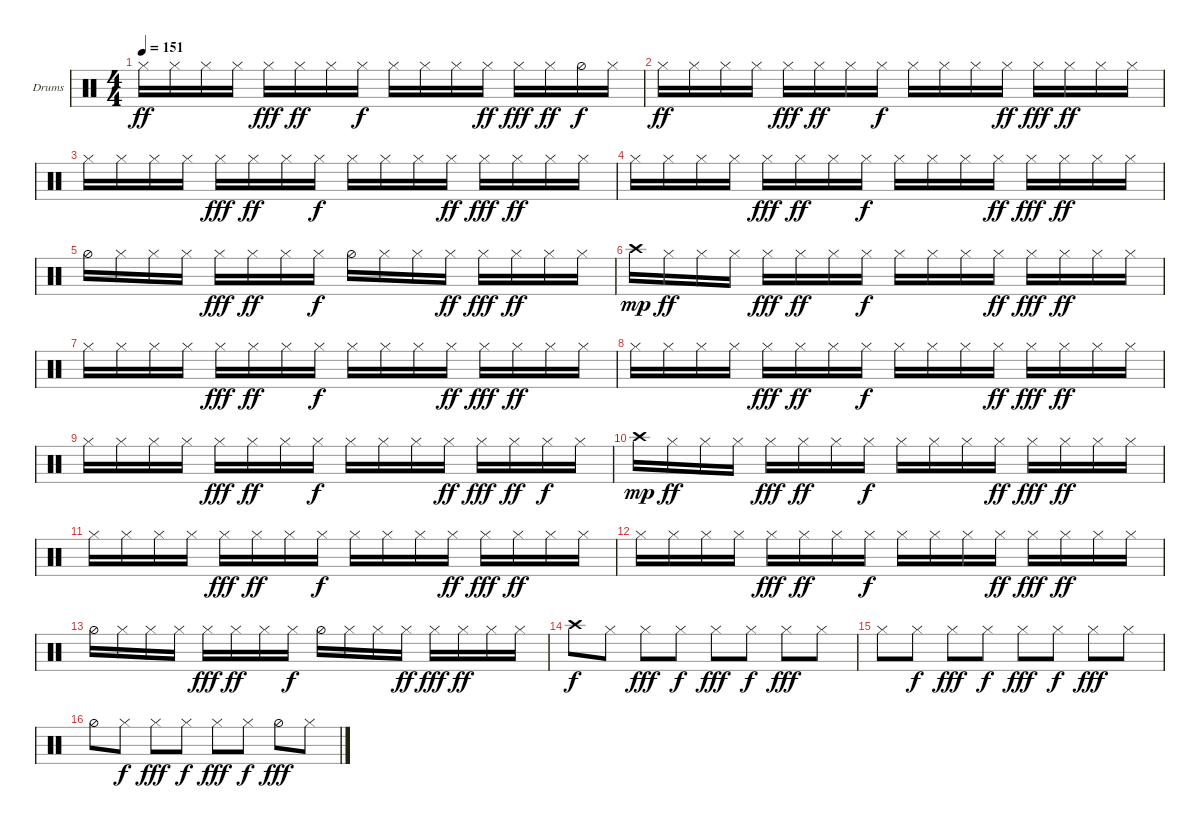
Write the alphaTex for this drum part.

\defaultSystemsLayout 4
\bracketExtendMode groupsimilarinstruments
\firstSystemTrackNameOrientation horizontal
\otherSystemsTrackNameOrientation horizontal
\track ("Helders" "Drums") {instrument percussion}
\staff {score}
\articulation defaults
\ts (4 4)
\tempo 151
\clef neutral
\ks c "Hi-Hat (closed)".16{dy ff} "Hi-Hat (closed)".16 "Hi-Hat (closed)".16 "Hi-Hat (closed)".16 "Hi-Hat (closed)".16{dy fff} "Hi-Hat (closed)".16{dy ff} "Hi-Hat (closed)".16 "Hi-Hat (closed)".16{dy f} "Hi-Hat (closed)".16 "Hi-Hat (closed)".16 "Hi-Hat (closed)".16 "Hi-Hat (closed)".16{dy ff} "Hi-Hat (closed)".16{dy fff} "Hi-Hat (closed)".16{dy ff} "Hi-Hat (half)".16{dy f} "Hi-Hat (closed)".16
|
"Hi-Hat (closed)".16{dy ff} "Hi-Hat (closed)".16 "Hi-Hat (closed)".16 "Hi-Hat (closed)".16 "Hi-Hat (closed)".16{dy fff} "Hi-Hat (closed)".16{dy ff} "Hi-Hat (closed)".16 "Hi-Hat (closed)".16{dy f} "Hi-Hat (closed)".16 "Hi-Hat (closed)".16 "Hi-Hat (closed)".16 "Hi-Hat (closed)".16{dy ff} "Hi-Hat (closed)".16{dy fff} "Hi-Hat (closed)".16{dy ff} "Hi-Hat (closed)".16 "Hi-Hat (closed)".16 |
"Hi-Hat (closed)".16 "Hi-Hat (closed)".16 "Hi-Hat (closed)".16 "Hi-Hat (closed)".16 "Hi-Hat (closed)".16{dy fff} "Hi-Hat (closed)".16{dy ff} "Hi-Hat (closed)".16 "Hi-Hat (closed)".16{dy f} "Hi-Hat (closed)".16 "Hi-Hat (closed)".16 "Hi-Hat (closed)".16 "Hi-Hat (closed)".16{dy ff} "Hi-Hat (closed)".16{dy fff} "Hi-Hat (closed)".16{dy ff} "Hi-Hat (closed)".16 "Hi-Hat (closed)".16 |
"Hi-Hat (closed)".16 "Hi-Hat (closed)".16 "Hi-Hat (closed)".16 "Hi-Hat (closed)".16 "Hi-Hat (closed)".16{dy fff} "Hi-Hat (closed)".16{dy ff} "Hi-Hat (closed)".16 "Hi-Hat (closed)".16{dy f} "Hi-Hat (closed)".16 "Hi-Hat (closed)".16 "Hi-Hat (closed)".16 "Hi-Hat (closed)".16{dy ff} "Hi-Hat (closed)".16{dy fff} "Hi-Hat (closed)".16{dy ff} "Hi-Hat (closed)".16 "Hi-Hat (closed)".16 |
"Hi-Hat (half)".16 "Hi-Hat (closed)".16 "Hi-Hat (closed)".16 "Hi-Hat (closed)".16 "Hi-Hat (closed)".16{dy fff} "Hi-Hat (closed)".16{dy ff} "Hi-Hat (closed)".16 "Hi-Hat (closed)".16{dy f} "Hi-Hat (half)".16 "Hi-Hat (closed)".16 "Hi-Hat (closed)".16 "Hi-Hat (closed)".16{dy ff} "Hi-Hat (closed)".16{dy fff} "Hi-Hat (closed)".16{dy ff} "Hi-Hat (closed)".16 "Hi-Hat (closed)".16 |
"Crash high (hit)".16{dy mp} "Hi-Hat (closed)".16{dy ff} "Hi-Hat (closed)".16 "Hi-Hat (closed)".16 "Hi-Hat (closed)".16{dy fff} "Hi-Hat (closed)".16{dy ff} "Hi-Hat (closed)".16 "Hi-Hat (closed)".16{dy f} "Hi-Hat (closed)".16 "Hi-Hat (closed)".16 "Hi-Hat (closed)".16 "Hi-Hat (closed)".16{dy ff} "Hi-Hat (closed)".16{dy fff} "Hi-Hat (closed)".16{dy ff} "Hi-Hat (closed)".16 "Hi-Hat (closed)".16 |
"Hi-Hat (closed)".16 "Hi-Hat (closed)".16 "Hi-Hat (closed)".16 "Hi-Hat (closed)".16 "Hi-Hat (closed)".16{dy fff} "Hi-Hat (closed)".16{dy ff} "Hi-Hat (closed)".16 "Hi-Hat (closed)".16{dy f} "Hi-Hat (closed)".16 "Hi-Hat (closed)".16 "Hi-Hat (closed)".16 "Hi-Hat (closed)".16{dy ff} "Hi-Hat (closed)".16{dy fff} "Hi-Hat (closed)".16{dy ff} "Hi-Hat (closed)".16 "Hi-Hat (closed)".16 |
"Hi-Hat (closed)".16 "Hi-Hat (closed)".16 "Hi-Hat (closed)".16 "Hi-Hat (closed)".16 "Hi-Hat (closed)".16{dy fff} "Hi-Hat (closed)".16{dy ff} "Hi-Hat (closed)".16 "Hi-Hat (closed)".16{dy f} "Hi-Hat (closed)".16 "Hi-Hat (closed)".16 "Hi-Hat (closed)".16 "Hi-Hat (closed)".16{dy ff} "Hi-Hat (closed)".16{dy fff} "Hi-Hat (closed)".16{dy ff} "Hi-Hat (closed)".16 "Hi-Hat (closed)".16 |
"Hi-Hat (closed)".16 "Hi-Hat (closed)".16 "Hi-Hat (closed)".16 "Hi-Hat (closed)".16 "Hi-Hat (closed)".16{dy fff} "Hi-Hat (closed)".16{dy ff} "Hi-Hat (closed)".16 "Hi-Hat (closed)".16{dy f} "Hi-Hat (closed)".16 "Hi-Hat (closed)".16 "Hi-Hat (closed)".16 "Hi-Hat (closed)".16{dy ff} "Hi-Hat (closed)".16{dy fff} "Hi-Hat (closed)".16{dy ff} "Hi-Hat (closed)".16{dy f} "Hi-Hat (closed)".16 |
"Crash high (hit)".16{dy mp} "Hi-Hat (closed)".16{dy ff} "Hi-Hat (closed)".16 "Hi-Hat (closed)".16 "Hi-Hat (closed)".16{dy fff} "Hi-Hat (closed)".16{dy ff} "Hi-Hat (closed)".16 "Hi-Hat (closed)".16{dy f} "Hi-Hat (closed)".16 "Hi-Hat (closed)".16 "Hi-Hat (closed)".16 "Hi-Hat (closed)".16{dy ff} "Hi-Hat (closed)".16{dy fff} "Hi-Hat (closed)".16{dy ff} "Hi-Hat (closed)".16 "Hi-Hat (closed)".16 |
"Hi-Hat (closed)".16 "Hi-Hat (closed)".16 "Hi-Hat (closed)".16 "Hi-Hat (closed)".16 "Hi-Hat (closed)".16{dy fff} "Hi-Hat (closed)".16{dy ff} "Hi-Hat (closed)".16 "Hi-Hat (closed)".16{dy f} "Hi-Hat (closed)".16 "Hi-Hat (closed)".16 "Hi-Hat (closed)".16 "Hi-Hat (closed)".16{dy ff} "Hi-Hat (closed)".16{dy fff} "Hi-Hat (closed)".16{dy ff} "Hi-Hat (closed)".16 "Hi-Hat (closed)".16 |
"Hi-Hat (closed)".16 "Hi-Hat (closed)".16 "Hi-Hat (closed)".16 "Hi-Hat (closed)".16 "Hi-Hat (closed)".16{dy fff} "Hi-Hat (closed)".16{dy ff} "Hi-Hat (closed)".16 "Hi-Hat (closed)".16{dy f} "Hi-Hat (closed)".16 "Hi-Hat (closed)".16 "Hi-Hat (closed)".16 "Hi-Hat (closed)".16{dy ff} "Hi-Hat (closed)".16{dy fff} "Hi-Hat (closed)".16{dy ff} "Hi-Hat (closed)".16 "Hi-Hat (closed)".16 |
"Hi-Hat (half)".16 "Hi-Hat (closed)".16 "Hi-Hat (closed)".16 "Hi-Hat (closed)".16 "Hi-Hat (closed)".16{dy fff} "Hi-Hat (closed)".16{dy ff} "Hi-Hat (closed)".16 "Hi-Hat (closed)".16{dy f} "Hi-Hat (half)".16 "Hi-Hat (closed)".16 "Hi-Hat (closed)".16 "Hi-Hat (closed)".16{dy ff} "Hi-Hat (closed)".16{dy fff} "Hi-Hat (closed)".16{dy ff} "Hi-Hat (closed)".16 "Hi-Hat (closed)".16 |
"Crash high (hit)".8{dy f} "Hi-Hat (closed)".8 "Hi-Hat (closed)".8{dy fff} "Hi-Hat (closed)".8{dy f} "Hi-Hat (closed)".8{dy fff} "Hi-Hat (closed)".8{dy f} "Hi-Hat (closed)".8{dy fff} "Hi-Hat (closed)".8 |
"Hi-Hat (closed)".8 "Hi-Hat (closed)".8{dy f} "Hi-Hat (closed)".8{dy fff} "Hi-Hat (closed)".8{dy f} "Hi-Hat (closed)".8{dy fff} "Hi-Hat (closed)".8{dy f} "Hi-Hat (closed)".8{dy fff} "Hi-Hat (closed)".8 |
"Hi-Hat (half)".8 "Hi-Hat (closed)".8{dy f} "Hi-Hat (closed)".8{dy fff} "Hi-Hat (closed)".8{dy f} "Hi-Hat (closed)".8{dy fff} "Hi-Hat (closed)".8{dy f} "Hi-Hat (half)".8{dy fff} "Hi-Hat (closed)".8
